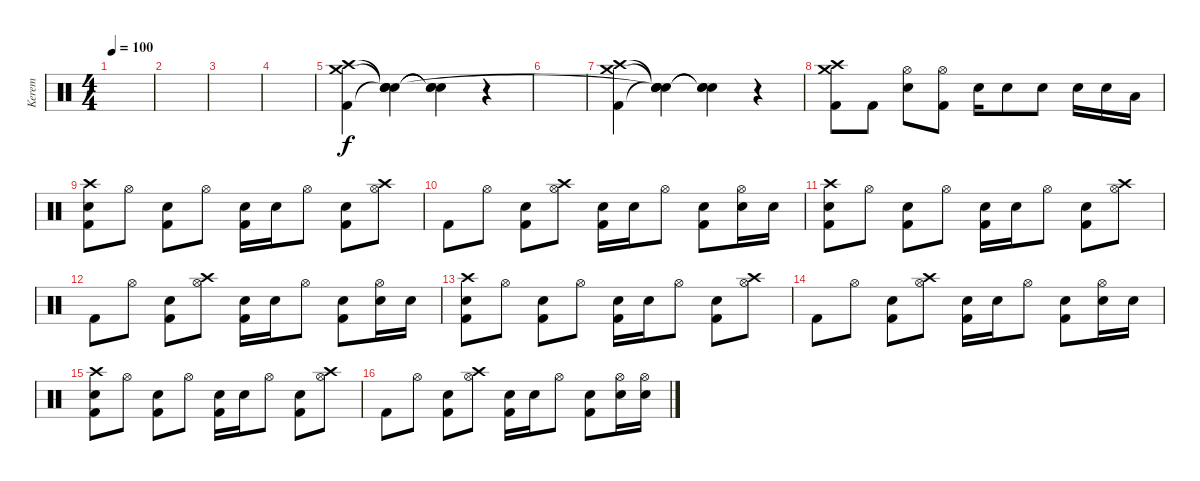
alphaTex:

\track ("Kerem" "Kerem") {instrument percussion}
\staff {score}
\articulation defaults
\ts (4 4)
\tempo 100
\clef neutral
\ks c
|
|
|
|
("Crash high (hit)" "Crash medium (hit)" "Kick (hit) 2").4 ("Snare (hit)"{t} "Snare (hit)"{t} "Snare (hit)"{t} "Snare (hit)").4 ("Snare (hit)"{t} "Snare (hit)"{t} "Snare (hit)"{t}).4 r.4 |
|
("Crash high (hit)" "Crash medium (hit)" "Kick (hit) 2").4 ("Snare (hit)"{t} "Snare (hit)"{t} "Snare (hit)"{t} "Snare (hit)"{t}).4 ("Snare (hit)"{t} "Snare (hit)"{t} "Snare (hit)"{t}).4 r.4 |
("Crash high (hit)" "Crash medium (hit)" "Kick (hit) 2").8 "Kick (hit) 2".8 ("Hi-Hat (open)" "Electric Snare (hit)").8 ("Hi-Hat (open)" "Kick (hit) 2").8 "Electric Snare (hit)".16 "Electric Snare (hit)".8 "Electric Snare (hit)".8 "Electric Snare (hit)".16 "Electric Snare (hit)".16 "Low Tom (hit)".16 |
("Crash high (hit)" "Electric Snare (hit)" "Kick (hit) 2").8 "Hi-Hat (open)".8 ("Electric Snare (hit)" "Kick (hit) 2").8 "Hi-Hat (open)".8 ("Electric Snare (hit)" "Kick (hit) 2").16 "Electric Snare (hit)".16 "Hi-Hat (open)".8 ("Electric Snare (hit)" "Kick (hit) 2").8 ("Crash high (hit)" "Hi-Hat (open)").8 |
"Kick (hit) 2".8 "Hi-Hat (open)".8 ("Electric Snare (hit)" "Kick (hit) 2").8 ("Crash high (hit)" "Hi-Hat (open)").8 ("Electric Snare (hit)" "Kick (hit) 2").16 "Electric Snare (hit)".16 "Hi-Hat (open)".8 ("Electric Snare (hit)" "Kick (hit) 2").8 ("Electric Snare (hit)" "Hi-Hat (open)").16 "Electric Snare (hit)".16 |
("Crash high (hit)" "Electric Snare (hit)" "Kick (hit) 2").8 "Hi-Hat (open)".8 ("Electric Snare (hit)" "Kick (hit) 2").8 "Hi-Hat (open)".8 ("Electric Snare (hit)" "Kick (hit) 2").16 "Electric Snare (hit)".16 "Hi-Hat (open)".8 ("Electric Snare (hit)" "Kick (hit) 2").8 ("Crash high (hit)" "Hi-Hat (open)").8 |
"Kick (hit) 2".8 "Hi-Hat (open)".8 ("Electric Snare (hit)" "Kick (hit) 2").8 ("Crash high (hit)" "Hi-Hat (open)").8 ("Electric Snare (hit)" "Kick (hit) 2").16 "Electric Snare (hit)".16 "Hi-Hat (open)".8 ("Electric Snare (hit)" "Kick (hit) 2").8 ("Electric Snare (hit)" "Hi-Hat (open)").16 "Electric Snare (hit)".16 |
("Crash high (hit)" "Electric Snare (hit)" "Kick (hit) 2").8 "Hi-Hat (open)".8 ("Electric Snare (hit)" "Kick (hit) 2").8 "Hi-Hat (open)".8 ("Electric Snare (hit)" "Kick (hit) 2").16 "Electric Snare (hit)".16 "Hi-Hat (open)".8 ("Electric Snare (hit)" "Kick (hit) 2").8 ("Crash high (hit)" "Hi-Hat (open)").8 |
"Kick (hit) 2".8 "Hi-Hat (open)".8 ("Electric Snare (hit)" "Kick (hit) 2").8 ("Crash high (hit)" "Hi-Hat (open)").8 ("Electric Snare (hit)" "Kick (hit) 2").16 "Electric Snare (hit)".16 "Hi-Hat (open)".8 ("Electric Snare (hit)" "Kick (hit) 2").8 ("Electric Snare (hit)" "Hi-Hat (open)").16 "Electric Snare (hit)".16 |
("Crash high (hit)" "Electric Snare (hit)" "Kick (hit) 2").8 "Hi-Hat (open)".8 ("Electric Snare (hit)" "Kick (hit) 2").8 "Hi-Hat (open)".8 ("Electric Snare (hit)" "Kick (hit) 2").16 "Electric Snare (hit)".16 "Hi-Hat (open)".8 ("Electric Snare (hit)" "Kick (hit) 2").8 ("Crash high (hit)" "Hi-Hat (open)").8 |
"Kick (hit) 2".8 "Hi-Hat (open)".8 ("Electric Snare (hit)" "Kick (hit) 2").8 ("Crash high (hit)" "Hi-Hat (open)").8 ("Electric Snare (hit)" "Kick (hit) 2").16 "Electric Snare (hit)".16 "Hi-Hat (open)".8 ("Electric Snare (hit)" "Kick (hit) 2").8 ("Electric Snare (hit)" "Hi-Hat (open)").16 ("Electric Snare (hit)" "Hi-Hat (open)").16
